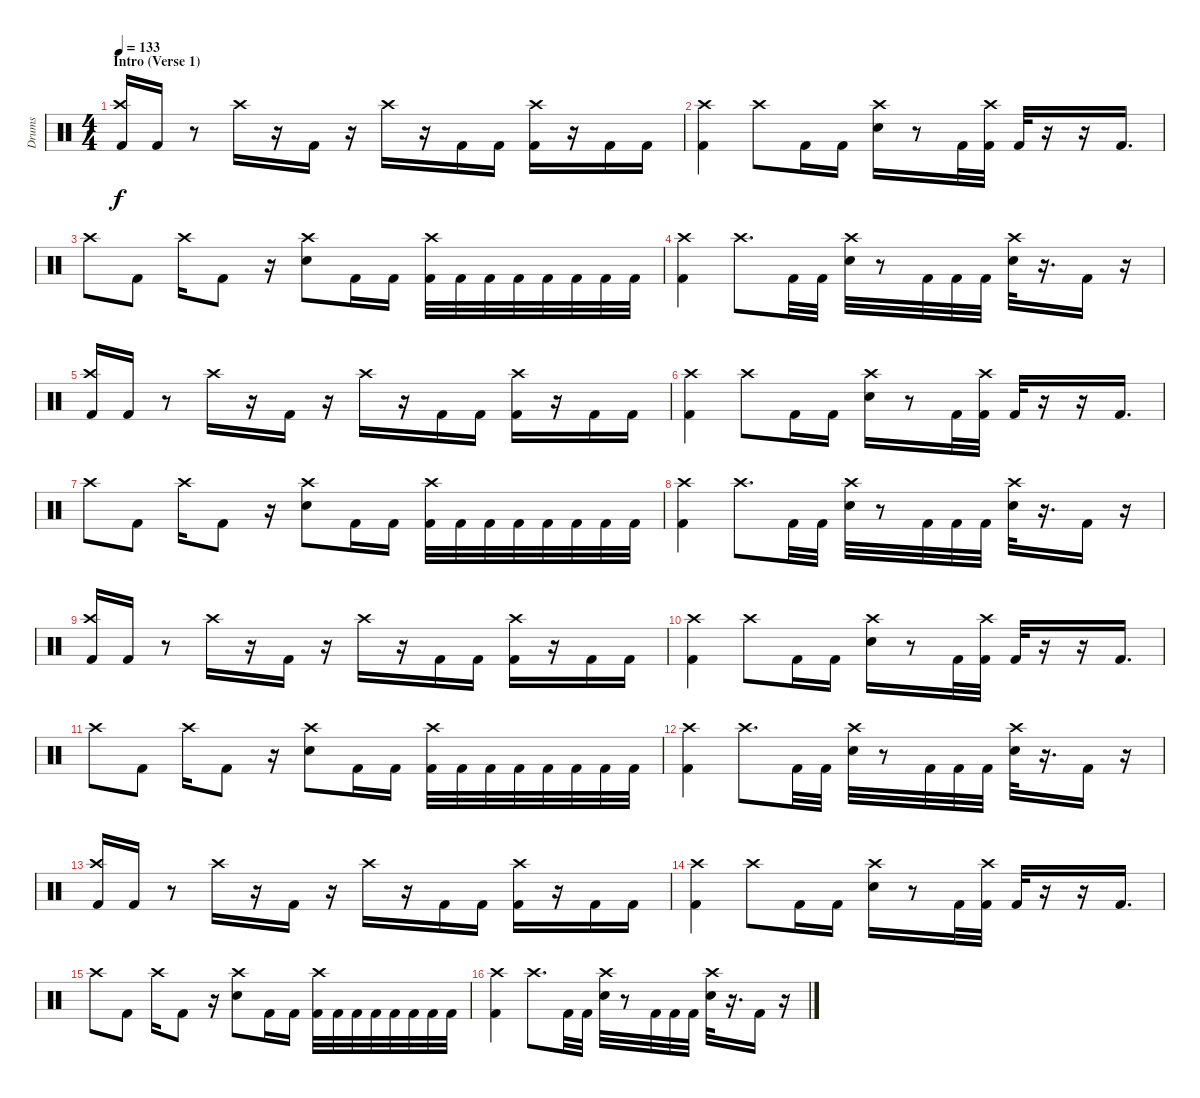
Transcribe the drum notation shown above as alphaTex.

\track ("Drums" "Drums") {instrument percussion}
\staff {score}
\articulation defaults
\ts (4 4)
\section ("" "Intro (Verse 1)")
\tempo 133
\clef neutral
\ks c
("Crash high (hit)" "Kick (hit) 2").16{dy f beam Up} "Kick (hit) 2".16{beam Up} r.8 "Crash high (hit)".16 r.16 "Kick (hit) 2".16 r.16 "Crash high (hit)".16 r.16 "Kick (hit) 2".16 "Kick (hit) 2".16 ("Crash high (hit)" "Kick (hit) 2").16 r.16 "Kick (hit) 2".16 "Kick (hit) 2".16 |
("Crash high (hit)" "Kick (hit) 2").4 "Crash high (hit)".8 "Kick (hit) 2".16 "Kick (hit) 2".16 ("Crash high (hit)" "Snare (hit) 2").16 r.8 "Kick (hit) 2".32 ("Crash high (hit)" "Kick (hit) 2").32 "Kick (hit) 2".32 r.16 r.16 "Kick (hit) 2".16{d} |
"Crash high (hit)".8 "Kick (hit) 2".8 "Crash high (hit)".16 "Kick (hit) 2".8 r.16 ("Crash high (hit)" "Snare (hit) 2").8 "Kick (hit) 2".16 "Kick (hit) 2".16 ("Crash high (hit)" "Kick (hit) 2").32 "Kick (hit) 2".32 "Kick (hit) 2".32 "Kick (hit) 2".32 "Kick (hit) 2".32 "Kick (hit) 2".32 "Kick (hit) 2".32 "Kick (hit) 2".32 |
("Crash high (hit)" "Kick (hit) 2").4 "Crash high (hit)".8{d} "Kick (hit) 2".32 "Kick (hit) 2".32 ("Crash high (hit)" "Snare (hit) 2").32 r.8 "Kick (hit) 2".32 "Kick (hit) 2".32 "Kick (hit) 2".32 ("Crash high (hit)" "Snare (hit) 2").32 r.16{d} "Kick (hit) 2".16 r.16 |
("Crash high (hit)" "Kick (hit) 2").16{beam Up} "Kick (hit) 2".16{beam Up} r.8 "Crash high (hit)".16 r.16 "Kick (hit) 2".16 r.16 "Crash high (hit)".16 r.16 "Kick (hit) 2".16 "Kick (hit) 2".16 ("Crash high (hit)" "Kick (hit) 2").16 r.16 "Kick (hit) 2".16 "Kick (hit) 2".16 |
("Crash high (hit)" "Kick (hit) 2").4 "Crash high (hit)".8 "Kick (hit) 2".16 "Kick (hit) 2".16 ("Crash high (hit)" "Snare (hit) 2").16 r.8 "Kick (hit) 2".32 ("Crash high (hit)" "Kick (hit) 2").32 "Kick (hit) 2".32 r.16 r.16 "Kick (hit) 2".16{d} |
"Crash high (hit)".8 "Kick (hit) 2".8 "Crash high (hit)".16 "Kick (hit) 2".8 r.16 ("Crash high (hit)" "Snare (hit) 2").8 "Kick (hit) 2".16 "Kick (hit) 2".16 ("Crash high (hit)" "Kick (hit) 2").32 "Kick (hit) 2".32 "Kick (hit) 2".32 "Kick (hit) 2".32 "Kick (hit) 2".32 "Kick (hit) 2".32 "Kick (hit) 2".32 "Kick (hit) 2".32 |
("Crash high (hit)" "Kick (hit) 2").4 "Crash high (hit)".8{d} "Kick (hit) 2".32 "Kick (hit) 2".32 ("Crash high (hit)" "Snare (hit) 2").32 r.8 "Kick (hit) 2".32 "Kick (hit) 2".32 "Kick (hit) 2".32 ("Crash high (hit)" "Snare (hit) 2").32 r.16{d} "Kick (hit) 2".16 r.16 |
("Crash high (hit)" "Kick (hit) 2").16{beam Up} "Kick (hit) 2".16{beam Up} r.8 "Crash high (hit)".16 r.16 "Kick (hit) 2".16 r.16 "Crash high (hit)".16 r.16 "Kick (hit) 2".16 "Kick (hit) 2".16 ("Crash high (hit)" "Kick (hit) 2").16 r.16 "Kick (hit) 2".16 "Kick (hit) 2".16 |
("Crash high (hit)" "Kick (hit) 2").4 "Crash high (hit)".8 "Kick (hit) 2".16 "Kick (hit) 2".16 ("Crash high (hit)" "Snare (hit) 2").16 r.8 "Kick (hit) 2".32 ("Crash high (hit)" "Kick (hit) 2").32 "Kick (hit) 2".32 r.16 r.16 "Kick (hit) 2".16{d} |
"Crash high (hit)".8 "Kick (hit) 2".8 "Crash high (hit)".16 "Kick (hit) 2".8 r.16 ("Crash high (hit)" "Snare (hit) 2").8 "Kick (hit) 2".16 "Kick (hit) 2".16 ("Crash high (hit)" "Kick (hit) 2").32 "Kick (hit) 2".32 "Kick (hit) 2".32 "Kick (hit) 2".32 "Kick (hit) 2".32 "Kick (hit) 2".32 "Kick (hit) 2".32 "Kick (hit) 2".32 |
("Crash high (hit)" "Kick (hit) 2").4 "Crash high (hit)".8{d} "Kick (hit) 2".32 "Kick (hit) 2".32 ("Crash high (hit)" "Snare (hit) 2").32 r.8 "Kick (hit) 2".32 "Kick (hit) 2".32 "Kick (hit) 2".32 ("Crash high (hit)" "Snare (hit) 2").32 r.16{d} "Kick (hit) 2".16 r.16 |
("Crash high (hit)" "Kick (hit) 2").16{beam Up} "Kick (hit) 2".16{beam Up} r.8 "Crash high (hit)".16 r.16 "Kick (hit) 2".16 r.16 "Crash high (hit)".16 r.16 "Kick (hit) 2".16 "Kick (hit) 2".16 ("Crash high (hit)" "Kick (hit) 2").16 r.16 "Kick (hit) 2".16 "Kick (hit) 2".16 |
("Crash high (hit)" "Kick (hit) 2").4 "Crash high (hit)".8 "Kick (hit) 2".16 "Kick (hit) 2".16 ("Crash high (hit)" "Snare (hit) 2").16 r.8 "Kick (hit) 2".32 ("Crash high (hit)" "Kick (hit) 2").32 "Kick (hit) 2".32 r.16 r.16 "Kick (hit) 2".16{d} |
"Crash high (hit)".8 "Kick (hit) 2".8 "Crash high (hit)".16 "Kick (hit) 2".8 r.16 ("Crash high (hit)" "Snare (hit) 2").8 "Kick (hit) 2".16 "Kick (hit) 2".16 ("Crash high (hit)" "Kick (hit) 2").32 "Kick (hit) 2".32 "Kick (hit) 2".32 "Kick (hit) 2".32 "Kick (hit) 2".32 "Kick (hit) 2".32 "Kick (hit) 2".32 "Kick (hit) 2".32 |
("Crash high (hit)" "Kick (hit) 2").4 "Crash high (hit)".8{d} "Kick (hit) 2".32 "Kick (hit) 2".32 ("Crash high (hit)" "Snare (hit) 2").32 r.8 "Kick (hit) 2".32 "Kick (hit) 2".32 "Kick (hit) 2".32 ("Crash high (hit)" "Snare (hit) 2").32 r.16{d} "Kick (hit) 2".16 r.16
